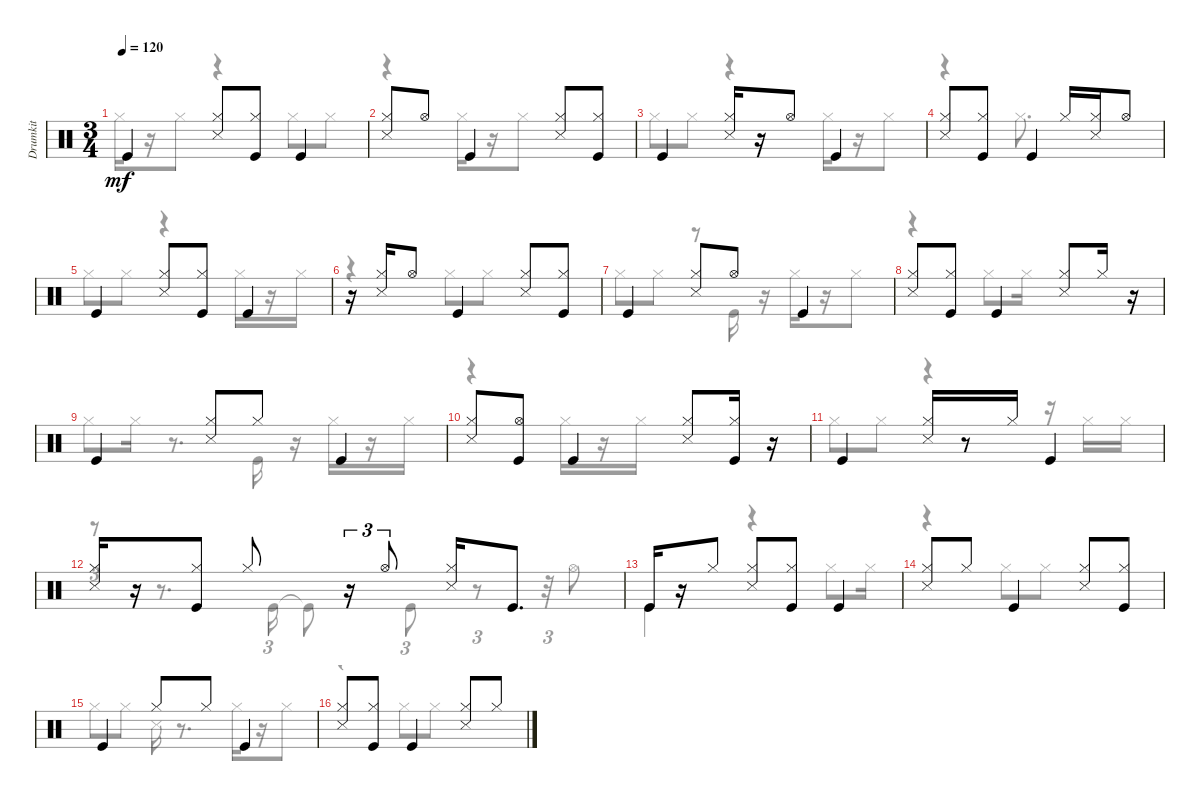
\track ("Drumkit" "Drumkit") {instrument percussion}
\staff {score}
\articulation defaults
\voice
\ts (3 4)
\tempo 120
\clef neutral
\ks aminor "Kick (hit)".4{dy mf}
("Snare (side stick) 3" "Hi-Hat (closed)").8 ("Kick (hit)" "Hi-Hat (closed)").8 "Kick (hit)".4 |
("Snare (side stick) 3" "Hi-Hat (closed)").8 "Hi-Hat (open)".8 "Kick (hit)".4 ("Hi-Hat (closed)" "Snare (side stick) 3").8 ("Hi-Hat (closed)" "Kick (hit)").8 |
"Kick (hit)".4 ("Hi-Hat (closed)" "Snare (side stick) 3").16 r.16 "Hi-Hat (open)".8 "Kick (hit)".4 |
("Hi-Hat (closed)" "Snare (side stick) 3").8 ("Hi-Hat (closed)" "Kick (hit)").8 "Kick (hit)".4 "Hi-Hat (closed)".16 ("Snare (side stick) 3" "Hi-Hat (closed)").16 "Hi-Hat (open)".8 |
"Kick (hit)".4 ("Snare (side stick) 3" "Hi-Hat (closed)").8 ("Hi-Hat (closed)" "Kick (hit)").8 "Kick (hit)".4 |
r.16 ("Hi-Hat (closed)" "Snare (side stick) 3").16 "Hi-Hat (open)".8 "Kick (hit)".4 ("Snare (side stick) 3" "Hi-Hat (closed)").8 ("Hi-Hat (closed)" "Kick (hit)").8 |
"Kick (hit)".4 ("Snare (side stick) 3" "Hi-Hat (closed)").8 "Hi-Hat (open)".8 "Kick (hit)".4 |
("Snare (side stick) 3" "Hi-Hat (closed)").8 ("Kick (hit)" "Hi-Hat (closed)").8 "Kick (hit)".4 ("Snare (side stick) 3" "Hi-Hat (closed)").8 "Hi-Hat (closed)".16 r.16 |
"Kick (hit)".4 ("Hi-Hat (closed)" "Snare (side stick) 3").8 "Hi-Hat (closed)".8 "Kick (hit)".4 |
("Snare (side stick) 3" "Hi-Hat (closed)").8 ("Kick (hit)" "Hi-Hat (open)").8 "Kick (hit)".4 ("Snare (side stick) 3" "Hi-Hat (closed)").8 ("Hi-Hat (closed)" "Kick (hit)").16 r.16 |
"Kick (hit)".4 ("Hi-Hat (closed)" "Snare (side stick) 3").16 r.8 "Hi-Hat (closed)".16 "Kick (hit)".4 |
("Hi-Hat (closed)" "Snare (side stick) 3").16 r.16 ("Kick (hit)" "Hi-Hat (closed)").8 "Hi-Hat (closed)".8 r.16{tu (3 2)} "Hi-Hat (open)".8{tu (3 2)} ("Hi-Hat (closed)" "Snare (side stick) 3").16 "Kick (hit)".8{d} |
"Kick (hit)".16 r.16 "Hi-Hat (closed)".8 ("Snare (side stick) 3" "Hi-Hat (closed)").8 ("Kick (hit)" "Hi-Hat (closed)").8 "Kick (hit)".4 |
("Snare (side stick) 3" "Hi-Hat (closed)").8 "Hi-Hat (closed)".8 "Kick (hit)".4 ("Snare (side stick) 3" "Hi-Hat (closed)").8 ("Hi-Hat (closed)" "Kick (hit)").8 |
"Kick (hit)".4 "Hi-Hat (closed)".8 "Hi-Hat (closed)".8 "Kick (hit)".4 |
("Snare (side stick) 3" "Hi-Hat (closed)").8 ("Hi-Hat (closed)" "Kick (hit)").8 "Kick (hit)".4 ("Snare (side stick) 3" "Hi-Hat (closed)").8 "Hi-Hat (closed)".8
\voice
\clef neutral
\ottava regular
\simile none
\ks aminor "Hi-Hat (closed)".16{dy mf}
r.16 "Hi-Hat (closed)".8 r.4 "Hi-Hat (closed)".8 "Hi-Hat (closed)".8 |
r.4 "Hi-Hat (closed)".16 r.16 "Hi-Hat (closed)".8 |
"Hi-Hat (closed)".8 "Hi-Hat (closed)".8 r.4 "Hi-Hat (closed)".16 r.16 "Hi-Hat (closed)".8 |
r.4 "Hi-Hat (closed)".8{d} |
"Hi-Hat (closed)".8 "Hi-Hat (closed)".8 r.4 "Hi-Hat (closed)".16 r.16 "Hi-Hat (closed)".16 |
r.4 "Hi-Hat (closed)".8 "Hi-Hat (closed)".8 |
"Hi-Hat (closed)".8 "Hi-Hat (closed)".8 r.8 "Kick (hit)".16 r.16 "Hi-Hat (closed)".16 r.16 "Hi-Hat (closed)".8 |
r.4 "Hi-Hat (closed)".8 "Hi-Hat (closed)".16 |
"Hi-Hat (closed)".8 "Hi-Hat (closed)".16 r.8{d} "Kick (hit)".16 r.16 "Hi-Hat (closed)".16 r.16 "Hi-Hat (closed)".16 |
r.4 "Hi-Hat (closed)".16 r.16 "Hi-Hat (closed)".16 |
"Hi-Hat (closed)".8 "Hi-Hat (closed)".8 r.4 r.16 "Hi-Hat (closed)".16 "Hi-Hat (closed)".16 |
r.8{tu (3 2)} r.8{d} "Kick (hit)".16{tu (3 2)} "Kick (hit)"{t}.8 "Kick (hit)".8{tu (3 2)} r.8{tu (3 2)} r.32{tu (3 2)} "Hi-Hat (open)".8 |
"Kick (hit)".4 r.4 "Hi-Hat (closed)".8 "Hi-Hat (closed)".16 |
r.4 "Hi-Hat (closed)".8 "Hi-Hat (closed)".8 |
"Hi-Hat (closed)".8 "Hi-Hat (closed)".8 "Snare (side stick) 3".16 r.8{d} "Hi-Hat (closed)".16 r.16 "Hi-Hat (closed)".8 |
r.4 "Hi-Hat (closed)".8 "Hi-Hat (closed)".8
